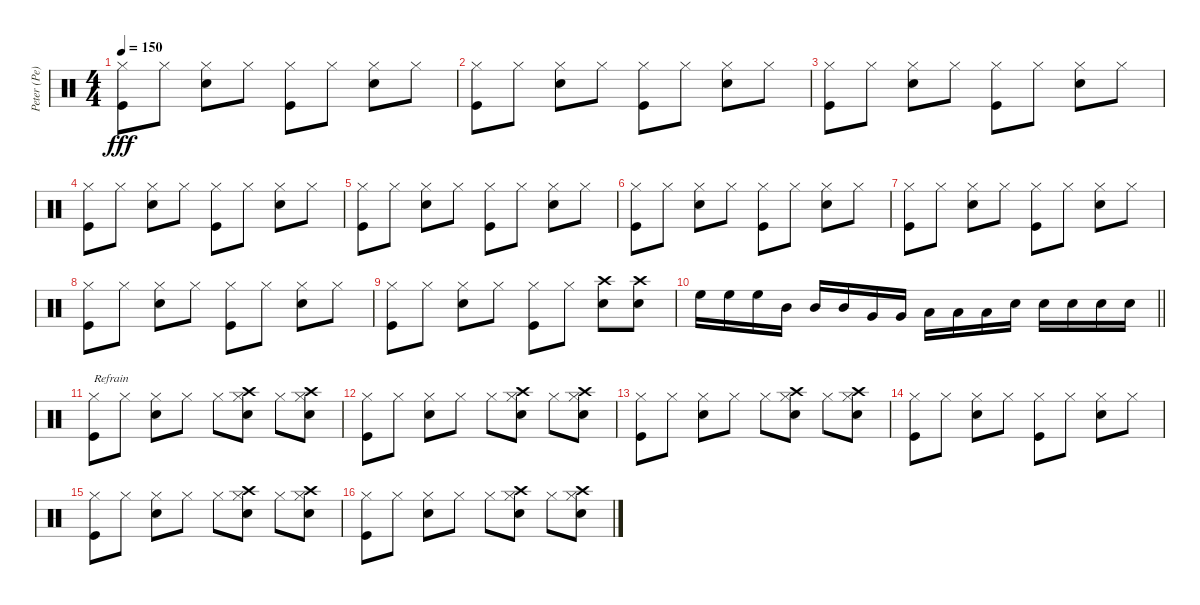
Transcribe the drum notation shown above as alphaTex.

\track ("Peter (Pe) Schorowsky" "Peter (Pe)") {instrument percussion}
\staff {score}
\articulation defaults
\ts (4 4)
\tempo 150
\clef neutral
\ks c
("Kick (hit)" "Hi-Hat (closed)").8{dy fff} "Hi-Hat (closed)".8 ("Electric Snare (hit)" "Hi-Hat (closed)").8 "Hi-Hat (closed)".8 ("Kick (hit)" "Hi-Hat (closed)").8 "Hi-Hat (closed)".8 ("Electric Snare (hit)" "Hi-Hat (closed)").8 "Hi-Hat (closed)".8 |
("Kick (hit)" "Hi-Hat (closed)").8 "Hi-Hat (closed)".8 ("Electric Snare (hit)" "Hi-Hat (closed)").8 "Hi-Hat (closed)".8 ("Kick (hit)" "Hi-Hat (closed)").8 "Hi-Hat (closed)".8 ("Electric Snare (hit)" "Hi-Hat (closed)").8 "Hi-Hat (closed)".8 |
("Kick (hit)" "Hi-Hat (closed)").8 "Hi-Hat (closed)".8 ("Electric Snare (hit)" "Hi-Hat (closed)").8 "Hi-Hat (closed)".8 ("Kick (hit)" "Hi-Hat (closed)").8 "Hi-Hat (closed)".8 ("Electric Snare (hit)" "Hi-Hat (closed)").8 "Hi-Hat (closed)".8 |
("Kick (hit)" "Hi-Hat (closed)").8 "Hi-Hat (closed)".8 ("Electric Snare (hit)" "Hi-Hat (closed)").8 "Hi-Hat (closed)".8 ("Kick (hit)" "Hi-Hat (closed)").8 "Hi-Hat (closed)".8 ("Electric Snare (hit)" "Hi-Hat (closed)").8 "Hi-Hat (closed)".8 |
("Kick (hit)" "Hi-Hat (closed)").8 "Hi-Hat (closed)".8 ("Electric Snare (hit)" "Hi-Hat (closed)").8 "Hi-Hat (closed)".8 ("Kick (hit)" "Hi-Hat (closed)").8 "Hi-Hat (closed)".8 ("Electric Snare (hit)" "Hi-Hat (closed)").8 "Hi-Hat (closed)".8 |
("Kick (hit)" "Hi-Hat (closed)").8 "Hi-Hat (closed)".8 ("Electric Snare (hit)" "Hi-Hat (closed)").8 "Hi-Hat (closed)".8 ("Kick (hit)" "Hi-Hat (closed)").8 "Hi-Hat (closed)".8 ("Electric Snare (hit)" "Hi-Hat (closed)").8 "Hi-Hat (closed)".8 |
("Kick (hit)" "Hi-Hat (closed)").8 "Hi-Hat (closed)".8 ("Electric Snare (hit)" "Hi-Hat (closed)").8 "Hi-Hat (closed)".8 ("Kick (hit)" "Hi-Hat (closed)").8 "Hi-Hat (closed)".8 ("Electric Snare (hit)" "Hi-Hat (closed)").8 "Hi-Hat (closed)".8 |
("Kick (hit)" "Hi-Hat (closed)").8 "Hi-Hat (closed)".8 ("Electric Snare (hit)" "Hi-Hat (closed)").8 "Hi-Hat (closed)".8 ("Kick (hit)" "Hi-Hat (closed)").8 "Hi-Hat (closed)".8 ("Electric Snare (hit)" "Hi-Hat (closed)").8 "Hi-Hat (closed)".8 |
("Kick (hit)" "Hi-Hat (closed)").8 "Hi-Hat (closed)".8 ("Electric Snare (hit)" "Hi-Hat (closed)").8 "Hi-Hat (closed)".8 ("Kick (hit)" "Hi-Hat (closed)").8 "Hi-Hat (closed)".8 ("Electric Snare (hit)" "Crash high (hit)").8 ("Electric Snare (hit)" "Crash high (hit)").8 |
\barLineRight lightlight "High Floor Tom (hit)".16 "High Floor Tom (hit)".16 "High Floor Tom (hit)".16 "Mid Tom (hit)".16 "Mid Tom (hit)".16 "Mid Tom (hit)".16 "Very Low Tom (hit)".16 "Very Low Tom (hit)".16 "Low Floor Tom (hit)".16 "Low Floor Tom (hit)".16 "Low Floor Tom (hit)".16 "Electric Snare (hit)".16 "Electric Snare (hit)".16 "Electric Snare (hit)".16 "Electric Snare (hit)".16 "Electric Snare (hit)".16
|
("Kick (hit)" "Hi-Hat (closed)").8{txt "Refrain"} "Hi-Hat (closed)".8 ("Electric Snare (hit)" "Hi-Hat (closed)").8 "Hi-Hat (closed)".8 "Hi-Hat (closed)".8 ("Crash high (hit)" "Electric Snare (hit)" "Hi-Hat (closed)").8 "Hi-Hat (closed)".8 ("Crash high (hit)" "Electric Snare (hit)" "Hi-Hat (closed)").8 |
("Kick (hit)" "Hi-Hat (closed)").8 "Hi-Hat (closed)".8 ("Electric Snare (hit)" "Hi-Hat (closed)").8 "Hi-Hat (closed)".8 "Hi-Hat (closed)".8 ("Crash high (hit)" "Electric Snare (hit)" "Hi-Hat (closed)").8 "Hi-Hat (closed)".8 ("Crash high (hit)" "Electric Snare (hit)" "Hi-Hat (closed)").8 |
("Kick (hit)" "Hi-Hat (closed)").8 "Hi-Hat (closed)".8 ("Electric Snare (hit)" "Hi-Hat (closed)").8 "Hi-Hat (closed)".8 "Hi-Hat (closed)".8 ("Crash high (hit)" "Electric Snare (hit)" "Hi-Hat (closed)").8 "Hi-Hat (closed)".8 ("Crash high (hit)" "Electric Snare (hit)" "Hi-Hat (closed)").8 |
("Kick (hit)" "Hi-Hat (closed)").8 "Hi-Hat (closed)".8 ("Electric Snare (hit)" "Hi-Hat (closed)").8 "Hi-Hat (closed)".8 ("Kick (hit)" "Hi-Hat (closed)").8 "Hi-Hat (closed)".8 ("Electric Snare (hit)" "Hi-Hat (closed)").8 "Hi-Hat (closed)".8 |
("Kick (hit)" "Hi-Hat (closed)").8 "Hi-Hat (closed)".8 ("Electric Snare (hit)" "Hi-Hat (closed)").8 "Hi-Hat (closed)".8 "Hi-Hat (closed)".8 ("Crash high (hit)" "Electric Snare (hit)" "Hi-Hat (closed)").8 "Hi-Hat (closed)".8 ("Crash high (hit)" "Electric Snare (hit)" "Hi-Hat (closed)").8 |
("Kick (hit)" "Hi-Hat (closed)").8 "Hi-Hat (closed)".8 ("Electric Snare (hit)" "Hi-Hat (closed)").8 "Hi-Hat (closed)".8 "Hi-Hat (closed)".8 ("Crash high (hit)" "Electric Snare (hit)" "Hi-Hat (closed)").8 "Hi-Hat (closed)".8 ("Crash high (hit)" "Electric Snare (hit)" "Hi-Hat (closed)").8
